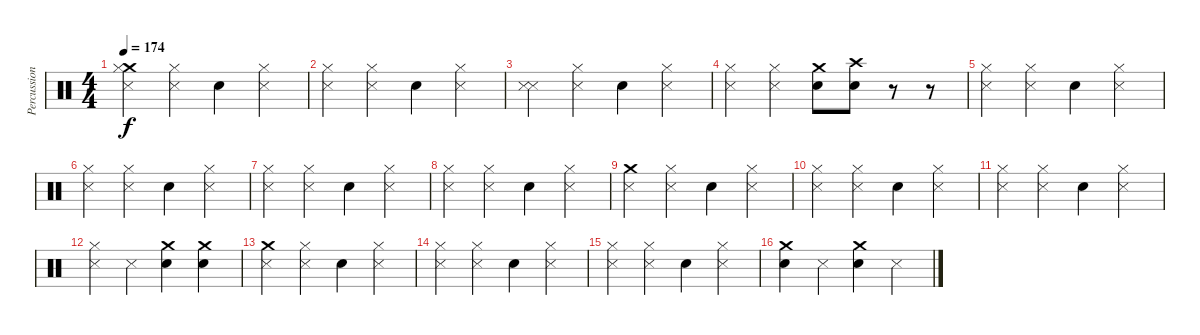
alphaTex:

\track ("Percussion" "Percussion") {instrument percussion}
\staff {score}
\articulation defaults
\ts (4 4)
\tempo 174
\clef neutral
\ks c
("Crash medium (hit)" "Hi-Hat (closed)" "Metronome (hit)").4{dy f} ("Hi-Hat (closed)" "Metronome (hit)").4 "Electric Snare (hit)".4 ("Hi-Hat (closed)" "Metronome (hit)").4 |
("Hi-Hat (closed)" "Metronome (hit)").4 ("Hi-Hat (closed)" "Metronome (hit)").4 "Electric Snare (hit)".4 ("Hi-Hat (closed)" "Metronome (hit)").4 |
("Metronome (hit)" "Metronome (hit)").4 ("Hi-Hat (closed)" "Metronome (hit)").4 "Electric Snare (hit)".4 ("Hi-Hat (closed)" "Metronome (hit)").4 |
("Hi-Hat (closed)" "Metronome (hit)").4 ("Hi-Hat (closed)" "Metronome (hit)").4 ("Crash medium (hit)" "Electric Snare (hit)").8 ("Crash high (hit)" "Electric Snare (hit)").8 r.8 r.8 |
("Hi-Hat (closed)" "Metronome (hit)").4 ("Hi-Hat (closed)" "Metronome (hit)").4 "Electric Snare (hit)".4 ("Hi-Hat (closed)" "Metronome (hit)").4 |
("Hi-Hat (closed)" "Metronome (hit)").4 ("Hi-Hat (closed)" "Metronome (hit)").4 "Electric Snare (hit)".4 ("Hi-Hat (closed)" "Metronome (hit)").4 |
("Hi-Hat (closed)" "Metronome (hit)").4 ("Hi-Hat (closed)" "Metronome (hit)").4 "Electric Snare (hit)".4 ("Hi-Hat (closed)" "Metronome (hit)").4 |
("Hi-Hat (closed)" "Metronome (hit)").4 ("Hi-Hat (closed)" "Metronome (hit)").4 "Electric Snare (hit)".4 ("Hi-Hat (closed)" "Metronome (hit)").4 |
("Crash medium (hit)" "Metronome (hit)").4 ("Hi-Hat (closed)" "Metronome (hit)").4 "Electric Snare (hit)".4 ("Hi-Hat (closed)" "Metronome (hit)").4 |
("Hi-Hat (closed)" "Metronome (hit)").4 ("Hi-Hat (closed)" "Metronome (hit)").4 "Electric Snare (hit)".4 ("Hi-Hat (closed)" "Metronome (hit)").4 |
("Hi-Hat (closed)" "Metronome (hit)").4 ("Hi-Hat (closed)" "Metronome (hit)").4 "Electric Snare (hit)".4 ("Hi-Hat (closed)" "Metronome (hit)").4 |
("Hi-Hat (closed)" "Metronome (hit)").4 "Metronome (hit)".4 ("Crash medium (hit)" "Electric Snare (hit)").4 ("Crash medium (hit)" "Electric Snare (hit)").4 |
("Crash medium (hit)" "Metronome (hit)").4 ("Hi-Hat (closed)" "Metronome (hit)").4 "Electric Snare (hit)".4 ("Hi-Hat (closed)" "Metronome (hit)").4 |
("Hi-Hat (closed)" "Metronome (hit)").4 ("Hi-Hat (closed)" "Metronome (hit)").4 "Electric Snare (hit)".4 ("Hi-Hat (closed)" "Metronome (hit)").4 |
("Hi-Hat (closed)" "Metronome (hit)").4 ("Hi-Hat (closed)" "Metronome (hit)").4 "Electric Snare (hit)".4 ("Hi-Hat (closed)" "Metronome (hit)").4 |
("Crash medium (hit)" "Electric Snare (hit)").4 "Metronome (hit)".4 ("Crash medium (hit)" "Electric Snare (hit)").4 "Metronome (hit)".4
